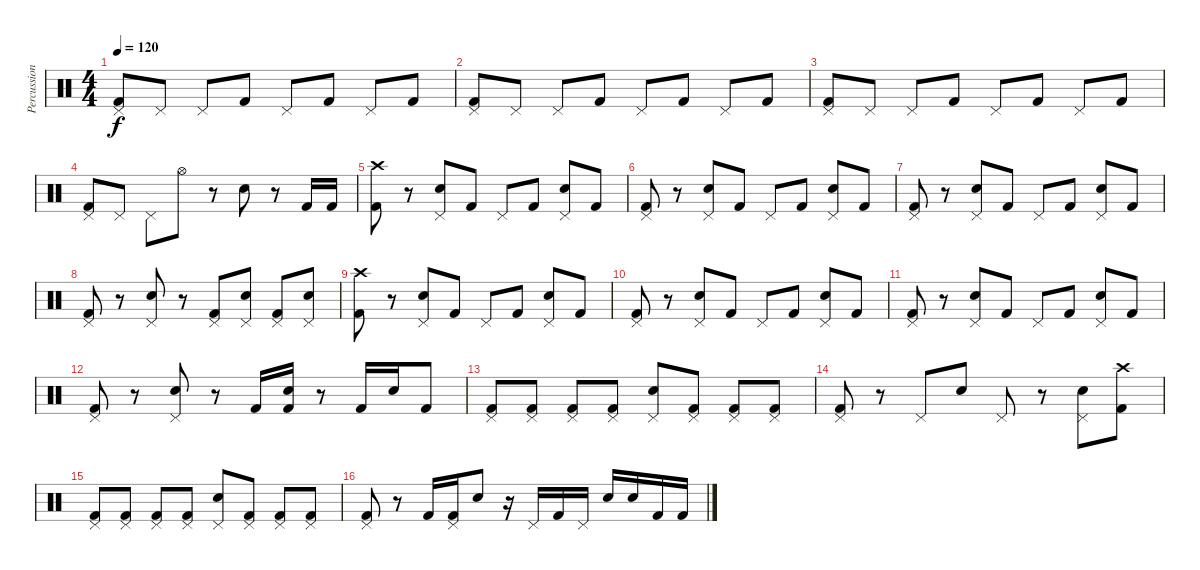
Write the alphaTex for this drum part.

\track ("Percussion" "Percussion") {instrument percussion}
\staff {score}
\articulation defaults
\ts (4 4)
\tempo 120
\clef neutral
\ks c
("Pedal Hi-Hat (hit)" "Kick (hit) 2").8{dy f} "Pedal Hi-Hat (hit)".8 "Pedal Hi-Hat (hit)".8 "Kick (hit) 2".8 "Pedal Hi-Hat (hit)".8 "Kick (hit) 2".8 "Pedal Hi-Hat (hit)".8 "Kick (hit) 2".8 |
("Pedal Hi-Hat (hit)" "Kick (hit) 2").8 "Pedal Hi-Hat (hit)".8 "Pedal Hi-Hat (hit)".8 "Kick (hit) 2".8 "Pedal Hi-Hat (hit)".8 "Kick (hit) 2".8 "Pedal Hi-Hat (hit)".8 "Kick (hit) 2".8 |
("Pedal Hi-Hat (hit)" "Kick (hit) 2").8 "Pedal Hi-Hat (hit)".8 "Pedal Hi-Hat (hit)".8 "Kick (hit) 2".8 "Pedal Hi-Hat (hit)".8 "Kick (hit) 2".8 "Pedal Hi-Hat (hit)".8 "Kick (hit) 2".8 |
("Pedal Hi-Hat (hit)" "Kick (hit) 2").8 "Pedal Hi-Hat (hit)".8 "Pedal Hi-Hat (hit)".8 "Hi-Hat (open)".8 r.8 "Electric Snare (hit)".8 r.8 "Kick (hit) 2".16 "Kick (hit) 2".16 |
("Crash high (hit)" "Kick (hit) 2").8 r.8 ("Pedal Hi-Hat (hit)" "Electric Snare (hit)").8 "Kick (hit) 2".8 "Pedal Hi-Hat (hit)".8 "Kick (hit) 2".8 ("Pedal Hi-Hat (hit)" "Electric Snare (hit)").8 "Kick (hit) 2".8 |
("Pedal Hi-Hat (hit)" "Kick (hit) 2").8 r.8 ("Pedal Hi-Hat (hit)" "Electric Snare (hit)").8 "Kick (hit) 2".8 "Pedal Hi-Hat (hit)".8 "Kick (hit) 2".8 ("Pedal Hi-Hat (hit)" "Electric Snare (hit)").8 "Kick (hit) 2".8 |
("Pedal Hi-Hat (hit)" "Kick (hit) 2").8 r.8 ("Pedal Hi-Hat (hit)" "Electric Snare (hit)").8 "Kick (hit) 2".8 "Pedal Hi-Hat (hit)".8 "Kick (hit) 2".8 ("Pedal Hi-Hat (hit)" "Electric Snare (hit)").8 "Kick (hit) 2".8 |
("Pedal Hi-Hat (hit)" "Kick (hit) 2").8 r.8 ("Pedal Hi-Hat (hit)" "Electric Snare (hit)").8 r.8 ("Pedal Hi-Hat (hit)" "Kick (hit) 2").8 ("Pedal Hi-Hat (hit)" "Electric Snare (hit)").8 ("Pedal Hi-Hat (hit)" "Kick (hit) 2").8 ("Pedal Hi-Hat (hit)" "Electric Snare (hit)").8 |
("Crash high (hit)" "Kick (hit) 2").8 r.8 ("Pedal Hi-Hat (hit)" "Electric Snare (hit)").8 "Kick (hit) 2".8 "Pedal Hi-Hat (hit)".8 "Kick (hit) 2".8 ("Pedal Hi-Hat (hit)" "Electric Snare (hit)").8 "Kick (hit) 2".8 |
("Pedal Hi-Hat (hit)" "Kick (hit) 2").8 r.8 ("Pedal Hi-Hat (hit)" "Electric Snare (hit)").8 "Kick (hit) 2".8 "Pedal Hi-Hat (hit)".8 "Kick (hit) 2".8 ("Pedal Hi-Hat (hit)" "Electric Snare (hit)").8 "Kick (hit) 2".8 |
("Pedal Hi-Hat (hit)" "Kick (hit) 2").8 r.8 ("Pedal Hi-Hat (hit)" "Electric Snare (hit)").8 "Kick (hit) 2".8 "Pedal Hi-Hat (hit)".8 "Kick (hit) 2".8 ("Pedal Hi-Hat (hit)" "Electric Snare (hit)").8 "Kick (hit) 2".8 |
("Pedal Hi-Hat (hit)" "Kick (hit) 2").8 r.8 ("Pedal Hi-Hat (hit)" "Electric Snare (hit)").8 r.8 "Kick (hit) 2".16 ("Electric Snare (hit)" "Kick (hit) 2").16 r.8 "Kick (hit) 2".16 "Electric Snare (hit)".16 "Kick (hit) 2".8 |
("Pedal Hi-Hat (hit)" "Kick (hit) 2").8 ("Pedal Hi-Hat (hit)" "Kick (hit) 2").8 ("Pedal Hi-Hat (hit)" "Kick (hit) 2").8 ("Pedal Hi-Hat (hit)" "Kick (hit) 2").8 ("Pedal Hi-Hat (hit)" "Electric Snare (hit)").8 ("Pedal Hi-Hat (hit)" "Kick (hit) 2").8 ("Pedal Hi-Hat (hit)" "Kick (hit) 2").8 ("Pedal Hi-Hat (hit)" "Kick (hit) 2").8 |
("Pedal Hi-Hat (hit)" "Kick (hit) 2").8 r.8 "Pedal Hi-Hat (hit)".8 "Electric Snare (hit)".8 "Pedal Hi-Hat (hit)".8 r.8 ("Pedal Hi-Hat (hit)" "Electric Snare (hit)").8 ("Crash high (hit)" "Kick (hit) 2").8 |
("Pedal Hi-Hat (hit)" "Kick (hit) 2").8 ("Pedal Hi-Hat (hit)" "Kick (hit) 2").8 ("Pedal Hi-Hat (hit)" "Kick (hit) 2").8 ("Pedal Hi-Hat (hit)" "Kick (hit) 2").8 ("Pedal Hi-Hat (hit)" "Electric Snare (hit)").8 ("Pedal Hi-Hat (hit)" "Kick (hit) 2").8 ("Pedal Hi-Hat (hit)" "Kick (hit) 2").8 ("Pedal Hi-Hat (hit)" "Kick (hit) 2").8 |
("Pedal Hi-Hat (hit)" "Kick (hit) 2").8 r.8 "Kick (hit) 2".16 ("Pedal Hi-Hat (hit)" "Kick (hit) 2").16 "Electric Snare (hit)".8 r.16 "Pedal Hi-Hat (hit)".16 "Kick (hit) 2".16 "Pedal Hi-Hat (hit)".16 "Electric Snare (hit)".16 "Electric Snare (hit)".16 "Kick (hit) 2".16 "Kick (hit) 2".16
